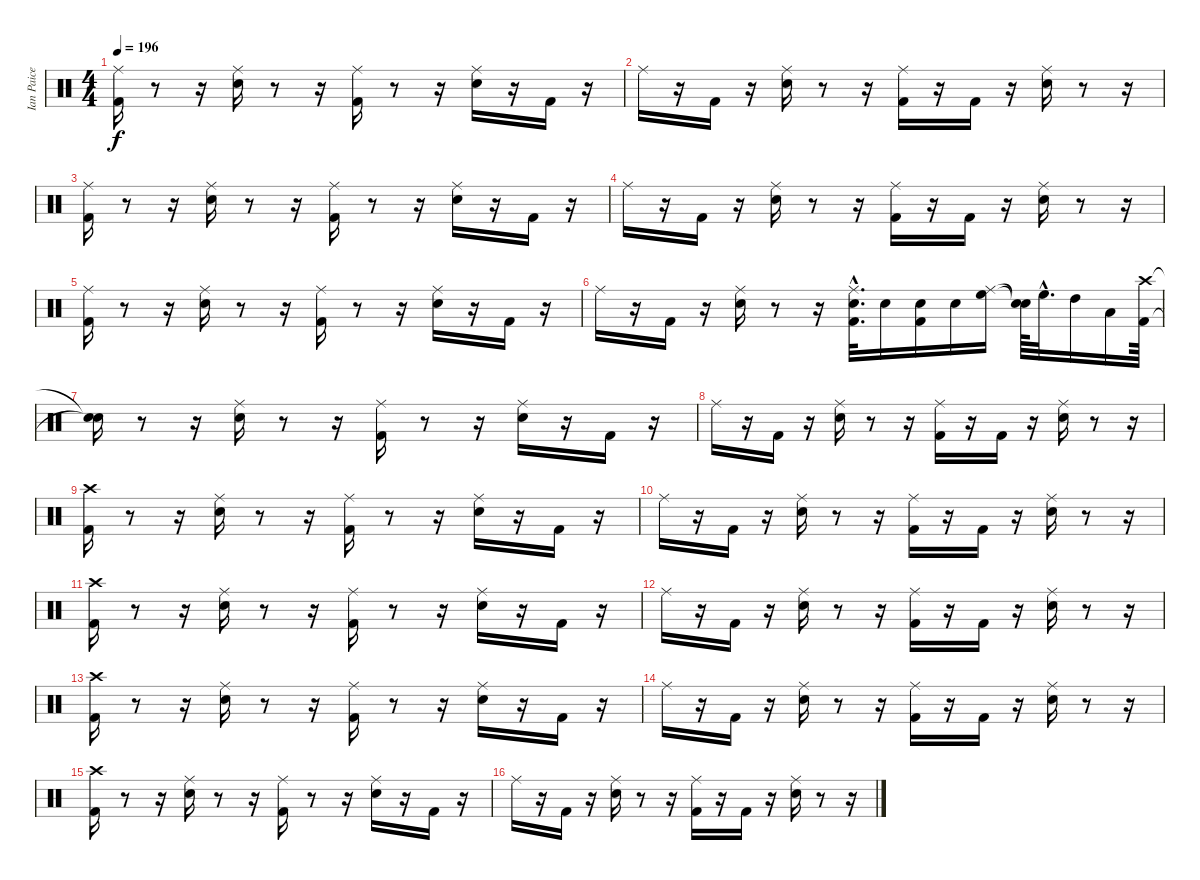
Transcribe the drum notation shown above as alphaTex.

\track ("Ian Paice" "Ian Paice") {instrument percussion}
\staff {score}
\articulation defaults
\ts (4 4)
\tempo 196
\clef neutral
\ks c
("Kick (hit) 2" "Ride (middle)").16{dy f} r.8 r.16 ("Snare (hit) 2" "Ride (middle)").16 r.8 r.16 ("Kick (hit) 2" "Ride (middle)").16 r.8 r.16 ("Snare (hit) 2" "Ride (middle)").16 r.16 "Kick (hit) 2".16 r.16 |
"Ride (middle)".16 r.16 "Kick (hit) 2".16 r.16 ("Snare (hit) 2" "Ride (middle)").16 r.8 r.16 ("Kick (hit) 2" "Ride (middle)").16 r.16 "Kick (hit) 2".16 r.16 ("Snare (hit) 2" "Ride (middle)").16 r.8 r.16 |
("Kick (hit) 2" "Ride (middle)").16 r.8 r.16 ("Snare (hit) 2" "Ride (middle)").16 r.8 r.16 ("Kick (hit) 2" "Ride (middle)").16 r.8 r.16 ("Snare (hit) 2" "Ride (middle)").16 r.16 "Kick (hit) 2".16 r.16 |
"Ride (middle)".16 r.16 "Kick (hit) 2".16 r.16 ("Snare (hit) 2" "Ride (middle)").16 r.8 r.16 ("Kick (hit) 2" "Ride (middle)").16 r.16 "Kick (hit) 2".16 r.16 ("Snare (hit) 2" "Ride (middle)").16 r.8 r.16 |
("Kick (hit) 2" "Ride (middle)").16 r.8 r.16 ("Snare (hit) 2" "Ride (middle)").16 r.8 r.16 ("Kick (hit) 2" "Ride (middle)").16 r.8 r.16 ("Snare (hit) 2" "Ride (middle)").16 r.16 "Kick (hit) 2".16 r.16 |
"Ride (middle)".16 r.16 "Kick (hit) 2".16 r.16 ("Snare (hit) 2" "Ride (middle)").16 r.8 r.16 ("Kick (hit) 2"{hac} "Ride (middle)"{hac} "Snare (hit) 2"{hac}).32{d} "Snare (hit) 2".16 ("Kick (hit) 2" "Snare (hit) 2").16 "Snare (hit) 2".16 ("Ride (middle)" "High Floor Tom (hit)").16 ("Snare (hit)"{t} "Snare (hit)"{t}).64 "High Floor Tom (hit)"{hac}.32{d} "High Tom (hit)".16 "Low Tom (hit)".16 ("Kick (hit) 2" "Crash high (hit)").64 |
("Snare (hit)"{t} "Snare (hit)"{t}).16 r.8 r.16 ("Snare (hit) 2" "Ride (middle)").16 r.8 r.16 ("Kick (hit) 2" "Ride (middle)").16 r.8 r.16 ("Snare (hit) 2" "Ride (middle)").16 r.16 "Kick (hit) 2".16 r.16 |
"Ride (middle)".16 r.16 "Kick (hit) 2".16 r.16 ("Snare (hit) 2" "Ride (middle)").16 r.8 r.16 ("Kick (hit) 2" "Ride (middle)").16 r.16 "Kick (hit) 2".16 r.16 ("Snare (hit) 2" "Ride (middle)").16 r.8 r.16 |
("Crash high (hit)" "Kick (hit) 2").16 r.8 r.16 ("Snare (hit) 2" "Ride (middle)").16 r.8 r.16 ("Kick (hit) 2" "Ride (middle)").16 r.8 r.16 ("Snare (hit) 2" "Ride (middle)").16 r.16 "Kick (hit) 2".16 r.16 |
"Ride (middle)".16 r.16 "Kick (hit) 2".16 r.16 ("Snare (hit) 2" "Ride (middle)").16 r.8 r.16 ("Kick (hit) 2" "Ride (middle)").16 r.16 "Kick (hit) 2".16 r.16 ("Snare (hit) 2" "Ride (middle)").16 r.8 r.16 |
("Crash high (hit)" "Kick (hit) 2").16 r.8 r.16 ("Snare (hit) 2" "Ride (middle)").16 r.8 r.16 ("Kick (hit) 2" "Ride (middle)").16 r.8 r.16 ("Snare (hit) 2" "Ride (middle)").16 r.16 "Kick (hit) 2".16 r.16 |
"Ride (middle)".16 r.16 "Kick (hit) 2".16 r.16 ("Snare (hit) 2" "Ride (middle)").16 r.8 r.16 ("Kick (hit) 2" "Ride (middle)").16 r.16 "Kick (hit) 2".16 r.16 ("Snare (hit) 2" "Ride (middle)").16 r.8 r.16 |
("Crash high (hit)" "Kick (hit) 2").16 r.8 r.16 ("Snare (hit) 2" "Ride (middle)").16 r.8 r.16 ("Kick (hit) 2" "Ride (middle)").16 r.8 r.16 ("Snare (hit) 2" "Ride (middle)").16 r.16 "Kick (hit) 2".16 r.16 |
"Ride (middle)".16 r.16 "Kick (hit) 2".16 r.16 ("Snare (hit) 2" "Ride (middle)").16 r.8 r.16 ("Kick (hit) 2" "Ride (middle)").16 r.16 "Kick (hit) 2".16 r.16 ("Snare (hit) 2" "Ride (middle)").16 r.8 r.16 |
("Kick (hit) 2" "Crash high (hit)").16 r.8 r.16 ("Snare (hit) 2" "Ride (middle)").16 r.8 r.16 ("Kick (hit) 2" "Ride (middle)").16 r.8 r.16 ("Snare (hit) 2" "Ride (middle)").16 r.16 "Kick (hit) 2".16 r.16 |
"Ride (middle)".16 r.16 "Kick (hit) 2".16 r.16 ("Snare (hit) 2" "Ride (middle)").16 r.8 r.16 ("Kick (hit) 2" "Ride (middle)").16 r.16 "Kick (hit) 2".16 r.16 ("Snare (hit) 2" "Ride (middle)").16 r.8 r.16
